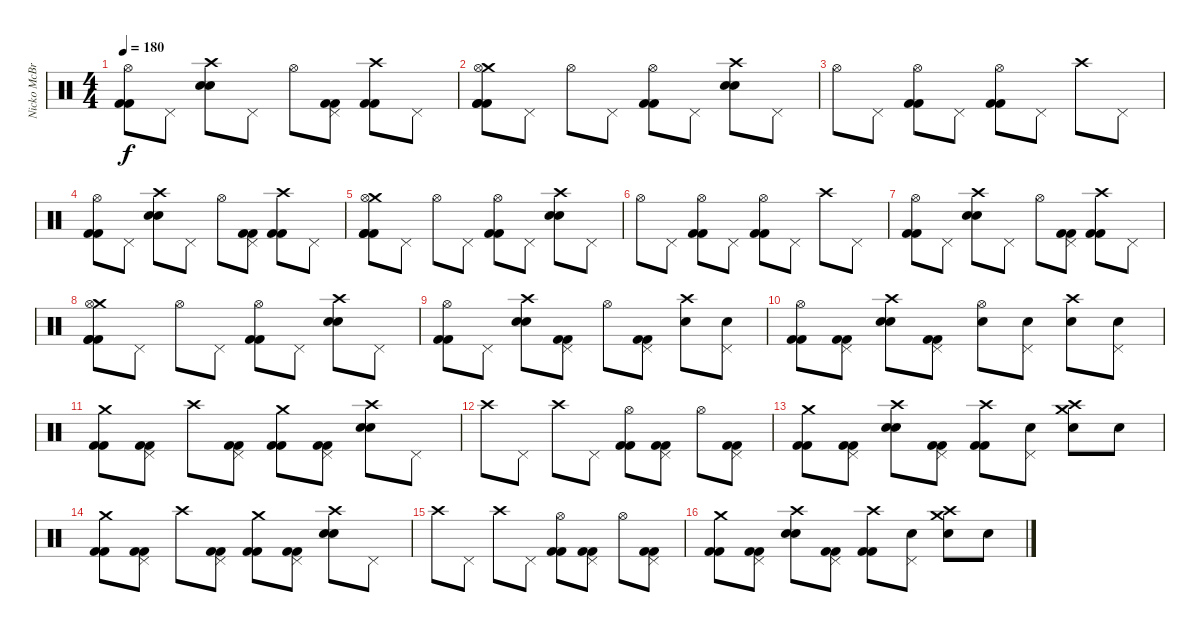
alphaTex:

\track ("Nicko McBrain" "Nicko McBr") {instrument percussion}
\staff {score}
\articulation defaults
\ts (4 4)
\tempo 180
\clef neutral
\ks c
("Hi-Hat (open)" "Kick (hit) 2" "Kick (hit) 2").8{dy f} "Pedal Hi-Hat (hit)".8 ("Crash high (hit)" "Snare (hit) 2" "Snare (hit) 2").8 "Pedal Hi-Hat (hit)".8 "Hi-Hat (open)".8 ("Pedal Hi-Hat (hit)" "Kick (hit) 2" "Kick (hit) 2").8 ("Crash high (hit)" "Kick (hit) 2" "Kick (hit) 2").8 "Pedal Hi-Hat (hit)".8 |
("Crash medium (hit)" "Hi-Hat (open)" "Kick (hit) 2" "Kick (hit) 2" "Kick (hit) 2").8 "Pedal Hi-Hat (hit)".8 "Hi-Hat (open)".8 "Pedal Hi-Hat (hit)".8 ("Hi-Hat (open)" "Kick (hit) 2" "Kick (hit) 2").8 "Pedal Hi-Hat (hit)".8 ("Crash high (hit)" "Snare (hit) 2" "Snare (hit) 2").8 "Pedal Hi-Hat (hit)".8 |
"Hi-Hat (open)".8 "Pedal Hi-Hat (hit)".8 ("Hi-Hat (open)" "Kick (hit) 2" "Kick (hit) 2").8 "Pedal Hi-Hat (hit)".8 ("Hi-Hat (open)" "Kick (hit) 2" "Kick (hit) 2").8 "Pedal Hi-Hat (hit)".8 "Crash high (hit)".8 "Pedal Hi-Hat (hit)".8 |
("Hi-Hat (open)" "Kick (hit) 2" "Kick (hit) 2").8 "Pedal Hi-Hat (hit)".8 ("Crash high (hit)" "Snare (hit) 2" "Snare (hit) 2").8 "Pedal Hi-Hat (hit)".8 "Hi-Hat (open)".8 ("Pedal Hi-Hat (hit)" "Kick (hit) 2" "Kick (hit) 2").8 ("Crash high (hit)" "Kick (hit) 2" "Kick (hit) 2").8 "Pedal Hi-Hat (hit)".8 |
("Crash medium (hit)" "Hi-Hat (open)" "Kick (hit) 2" "Kick (hit) 2" "Kick (hit) 2").8 "Pedal Hi-Hat (hit)".8 "Hi-Hat (open)".8 "Pedal Hi-Hat (hit)".8 ("Hi-Hat (open)" "Kick (hit) 2" "Kick (hit) 2").8 "Pedal Hi-Hat (hit)".8 ("Crash high (hit)" "Snare (hit) 2" "Snare (hit) 2").8 "Pedal Hi-Hat (hit)".8 |
"Hi-Hat (open)".8 "Pedal Hi-Hat (hit)".8 ("Hi-Hat (open)" "Kick (hit) 2" "Kick (hit) 2").8 "Pedal Hi-Hat (hit)".8 ("Hi-Hat (open)" "Kick (hit) 2" "Kick (hit) 2").8 "Pedal Hi-Hat (hit)".8 "Crash high (hit)".8 "Pedal Hi-Hat (hit)".8 |
("Hi-Hat (open)" "Kick (hit) 2" "Kick (hit) 2").8 "Pedal Hi-Hat (hit)".8 ("Crash high (hit)" "Snare (hit) 2" "Snare (hit) 2").8 "Pedal Hi-Hat (hit)".8 "Hi-Hat (open)".8 ("Pedal Hi-Hat (hit)" "Kick (hit) 2" "Kick (hit) 2").8 ("Crash high (hit)" "Kick (hit) 2" "Kick (hit) 2").8 "Pedal Hi-Hat (hit)".8 |
("Crash medium (hit)" "Hi-Hat (open)" "Kick (hit) 2" "Kick (hit) 2" "Kick (hit) 2").8 "Pedal Hi-Hat (hit)".8 "Hi-Hat (open)".8 "Pedal Hi-Hat (hit)".8 ("Hi-Hat (open)" "Kick (hit) 2" "Kick (hit) 2").8 "Pedal Hi-Hat (hit)".8 ("Crash high (hit)" "Snare (hit) 2" "Snare (hit) 2").8 "Pedal Hi-Hat (hit)".8 |
("Hi-Hat (open)" "Kick (hit) 2" "Kick (hit) 2").8 "Pedal Hi-Hat (hit)".8 ("Crash high (hit)" "Snare (hit) 2" "Snare (hit) 2").8 ("Pedal Hi-Hat (hit)" "Kick (hit) 2" "Kick (hit) 2").8 "Hi-Hat (open)".8 ("Pedal Hi-Hat (hit)" "Kick (hit) 2" "Kick (hit) 2").8 ("Crash high (hit)" "Snare (hit) 2").8 ("Pedal Hi-Hat (hit)" "Snare (hit) 2").8 |
("Hi-Hat (open)" "Kick (hit) 2" "Kick (hit) 2").8 ("Pedal Hi-Hat (hit)" "Kick (hit) 2" "Kick (hit) 2").8 ("Crash high (hit)" "Snare (hit) 2" "Snare (hit) 2").8 ("Pedal Hi-Hat (hit)" "Kick (hit) 2" "Kick (hit) 2").8 ("Hi-Hat (open)" "Snare (hit) 2").8 ("Pedal Hi-Hat (hit)" "Snare (hit) 2").8 ("Crash high (hit)" "Snare (hit) 2").8 ("Pedal Hi-Hat (hit)" "Snare (hit) 2").8 |
("Crash medium (hit)" "Kick (hit) 2" "Kick (hit) 2").8 ("Pedal Hi-Hat (hit)" "Kick (hit) 2" "Kick (hit) 2").8 "Crash high (hit)".8 ("Pedal Hi-Hat (hit)" "Kick (hit) 2" "Kick (hit) 2").8 ("Crash medium (hit)" "Kick (hit) 2" "Kick (hit) 2").8 ("Pedal Hi-Hat (hit)" "Kick (hit) 2" "Kick (hit) 2").8 ("Crash high (hit)" "Snare (hit) 2" "Snare (hit) 2").8 "Pedal Hi-Hat (hit)".8 |
"Crash high (hit)".8 "Pedal Hi-Hat (hit)".8 "Crash high (hit)".8 "Pedal Hi-Hat (hit)".8 ("Hi-Hat (open)" "Kick (hit) 2" "Kick (hit) 2").8 ("Pedal Hi-Hat (hit)" "Kick (hit) 2" "Kick (hit) 2").8 "Hi-Hat (open)".8 ("Pedal Hi-Hat (hit)" "Kick (hit) 2" "Kick (hit) 2").8 |
("Crash medium (hit)" "Kick (hit) 2" "Kick (hit) 2").8 ("Pedal Hi-Hat (hit)" "Kick (hit) 2" "Kick (hit) 2").8 ("Crash high (hit)" "Snare (hit) 2" "Snare (hit) 2").8 ("Pedal Hi-Hat (hit)" "Kick (hit) 2" "Kick (hit) 2").8 ("Crash high (hit)" "Kick (hit) 2" "Kick (hit) 2").8 ("Pedal Hi-Hat (hit)" "Snare (hit) 2").8 ("Crash high (hit)" "Crash medium (hit)" "Snare (hit) 2").8 "Snare (hit) 2".8 |
("Crash medium (hit)" "Kick (hit) 2" "Kick (hit) 2").8 ("Pedal Hi-Hat (hit)" "Kick (hit) 2" "Kick (hit) 2").8 "Crash high (hit)".8 ("Pedal Hi-Hat (hit)" "Kick (hit) 2" "Kick (hit) 2").8 ("Crash medium (hit)" "Kick (hit) 2" "Kick (hit) 2").8 ("Pedal Hi-Hat (hit)" "Kick (hit) 2" "Kick (hit) 2").8 ("Crash high (hit)" "Snare (hit) 2" "Snare (hit) 2").8 "Pedal Hi-Hat (hit)".8 |
"Crash high (hit)".8 "Pedal Hi-Hat (hit)".8 "Crash high (hit)".8 "Pedal Hi-Hat (hit)".8 ("Hi-Hat (open)" "Kick (hit) 2" "Kick (hit) 2").8 ("Pedal Hi-Hat (hit)" "Kick (hit) 2" "Kick (hit) 2").8 "Hi-Hat (open)".8 ("Pedal Hi-Hat (hit)" "Kick (hit) 2" "Kick (hit) 2").8 |
("Crash medium (hit)" "Kick (hit) 2" "Kick (hit) 2").8 ("Pedal Hi-Hat (hit)" "Kick (hit) 2" "Kick (hit) 2").8 ("Crash high (hit)" "Snare (hit) 2" "Snare (hit) 2").8 ("Pedal Hi-Hat (hit)" "Kick (hit) 2" "Kick (hit) 2").8 ("Crash high (hit)" "Kick (hit) 2" "Kick (hit) 2").8 ("Pedal Hi-Hat (hit)" "Snare (hit) 2").8 ("Crash high (hit)" "Crash medium (hit)" "Snare (hit) 2").8 "Snare (hit) 2".8
